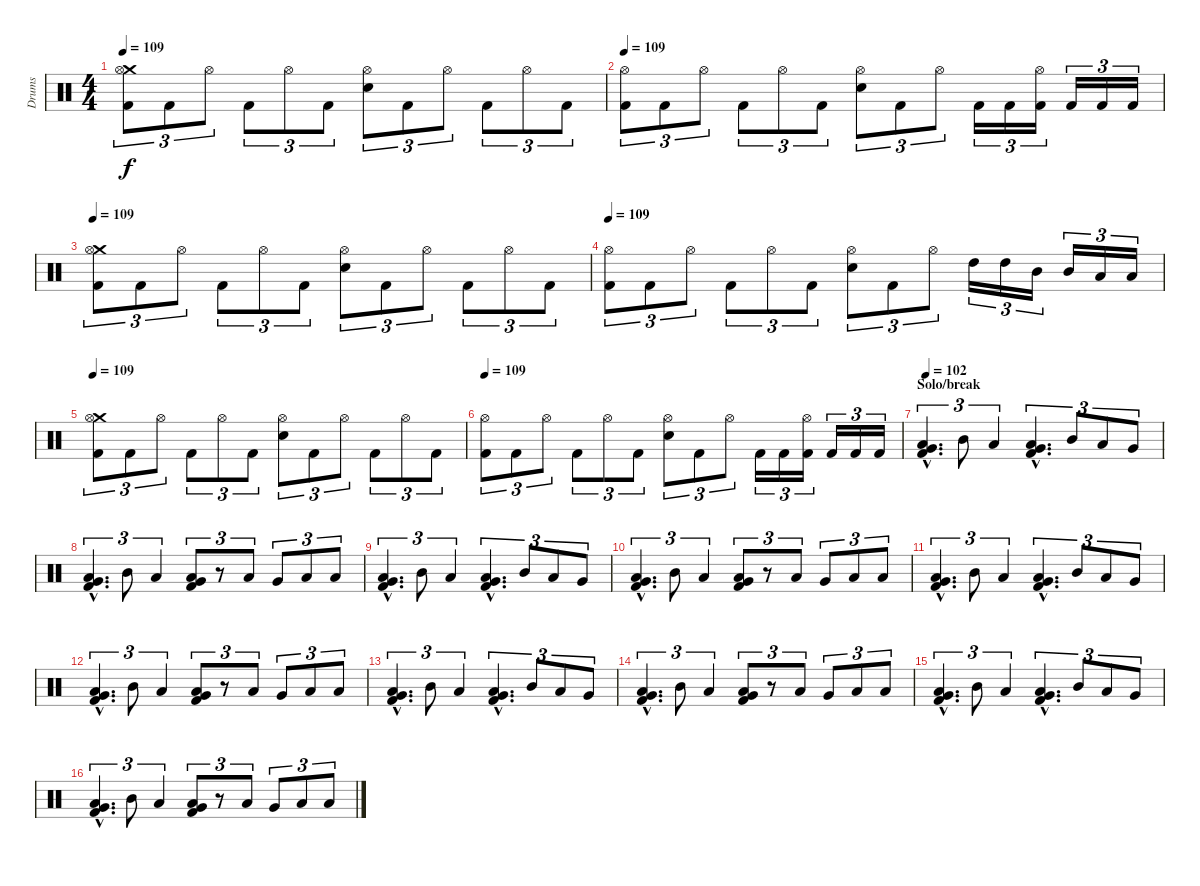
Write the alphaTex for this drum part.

\track ("Drums" "Drums") {instrument percussion}
\staff {score}
\articulation defaults
\ts (4 4)
\tempo 109
\clef neutral
\ks c
("Crash medium (hit)" "Hi-Hat (open)" "Kick (hit) 2").8{tu (3 2) dy f} "Kick (hit) 2".8{tu (3 2)} "Hi-Hat (open)".8{tu (3 2)} "Kick (hit) 2".8{tu (3 2)} "Hi-Hat (open)".8{tu (3 2)} "Kick (hit) 2".8{tu (3 2)} ("Hi-Hat (open)" "Snare (hit) 2").8{tu (3 2)} "Kick (hit) 2".8{tu (3 2)} "Hi-Hat (open)".8{tu (3 2)} "Kick (hit) 2".8{tu (3 2)} "Hi-Hat (open)".8{tu (3 2)} "Kick (hit) 2".8{tu (3 2)} |
\tempo 109
("Hi-Hat (open)" "Kick (hit) 2").8{tu (3 2)} "Kick (hit) 2".8{tu (3 2)} "Hi-Hat (open)".8{tu (3 2)} "Kick (hit) 2".8{tu (3 2)} "Hi-Hat (open)".8{tu (3 2)} "Kick (hit) 2".8{tu (3 2)} ("Hi-Hat (open)" "Snare (hit) 2").8{tu (3 2)} "Kick (hit) 2".8{tu (3 2)} "Hi-Hat (open)".8{tu (3 2)} "Kick (hit) 2".16{tu (3 2)} "Kick (hit) 2".16{tu (3 2)} ("Hi-Hat (open)" "Kick (hit) 2").16{tu (3 2)} "Kick (hit) 2".16{tu (3 2)} "Kick (hit) 2".16{tu (3 2)} "Kick (hit) 2".16{tu (3 2)} |
\tempo 109
("Crash medium (hit)" "Hi-Hat (open)" "Kick (hit) 2").8{tu (3 2)} "Kick (hit) 2".8{tu (3 2)} "Hi-Hat (open)".8{tu (3 2)} "Kick (hit) 2".8{tu (3 2)} "Hi-Hat (open)".8{tu (3 2)} "Kick (hit) 2".8{tu (3 2)} ("Hi-Hat (open)" "Snare (hit) 2").8{tu (3 2)} "Kick (hit) 2".8{tu (3 2)} "Hi-Hat (open)".8{tu (3 2)} "Kick (hit) 2".8{tu (3 2)} "Hi-Hat (open)".8{tu (3 2)} "Kick (hit) 2".8{tu (3 2)} |
\tempo 109
("Hi-Hat (open)" "Kick (hit) 2").8{tu (3 2)} "Kick (hit) 2".8{tu (3 2)} "Hi-Hat (open)".8{tu (3 2)} "Kick (hit) 2".8{tu (3 2)} "Hi-Hat (open)".8{tu (3 2)} "Kick (hit) 2".8{tu (3 2)} ("Hi-Hat (open)" "Snare (hit) 2").8{tu (3 2)} "Kick (hit) 2".8{tu (3 2)} "Hi-Hat (open)".8{tu (3 2)} "High Tom (hit)".16{tu (3 2)} "High Tom (hit)".16{tu (3 2)} "Mid Tom (hit)".16{tu (3 2)} "Mid Tom (hit)".16{tu (3 2)} "Low Tom (hit)".16{tu (3 2)} "Low Tom (hit)".16{tu (3 2)} |
\tempo 109
("Crash medium (hit)" "Hi-Hat (open)" "Kick (hit) 2").8{tu (3 2)} "Kick (hit) 2".8{tu (3 2)} "Hi-Hat (open)".8{tu (3 2)} "Kick (hit) 2".8{tu (3 2)} "Hi-Hat (open)".8{tu (3 2)} "Kick (hit) 2".8{tu (3 2)} ("Hi-Hat (open)" "Snare (hit) 2").8{tu (3 2)} "Kick (hit) 2".8{tu (3 2)} "Hi-Hat (open)".8{tu (3 2)} "Kick (hit) 2".8{tu (3 2)} "Hi-Hat (open)".8{tu (3 2)} "Kick (hit) 2".8{tu (3 2)} |
\tempo 109
("Hi-Hat (open)" "Kick (hit) 2").8{tu (3 2)} "Kick (hit) 2".8{tu (3 2)} "Hi-Hat (open)".8{tu (3 2)} "Kick (hit) 2".8{tu (3 2)} "Hi-Hat (open)".8{tu (3 2)} "Kick (hit) 2".8{tu (3 2)} ("Hi-Hat (open)" "Snare (hit) 2").8{tu (3 2)} "Kick (hit) 2".8{tu (3 2)} "Hi-Hat (open)".8{tu (3 2)} "Kick (hit) 2".16{tu (3 2)} "Kick (hit) 2".16{tu (3 2)} ("Hi-Hat (open)" "Kick (hit) 2").16{tu (3 2)} "Kick (hit) 2".16{tu (3 2)} "Kick (hit) 2".16{tu (3 2)} "Kick (hit) 2".16{tu (3 2)} |
\section ("" "Solo/break")
\tempo 102
("Very Low Tom (hit)"{hac} "Low Floor Tom (hit)"{hac} "Kick (hit) 2"{hac}).4{d tu (3 2)} "Mid Tom (hit)".8{tu (3 2)} "Low Tom (hit)".4{tu (3 2)} ("Very Low Tom (hit)"{hac} "Low Floor Tom (hit)"{hac} "Kick (hit) 2"{hac}).4{d tu (3 2)} "Mid Tom (hit)".8{tu (3 2)} "Low Tom (hit)".8{tu (3 2)} "Very Low Tom (hit)".8{tu (3 2)} |
("Very Low Tom (hit)"{hac} "Low Floor Tom (hit)"{hac} "Kick (hit) 2"{hac}).4{d tu (3 2)} "Mid Tom (hit)".8{tu (3 2)} "Low Tom (hit)".4{tu (3 2)} ("Very Low Tom (hit)" "Low Floor Tom (hit)" "Kick (hit) 2").8{tu (3 2)} r.8{tu (3 2)} "Low Tom (hit)".8{tu (3 2)} "Very Low Tom (hit)".8{tu (3 2)} "Low Floor Tom (hit)".8{tu (3 2)} "Low Floor Tom (hit)".8{tu (3 2)} |
("Very Low Tom (hit)"{hac} "Low Floor Tom (hit)"{hac} "Kick (hit) 2"{hac}).4{d tu (3 2)} "Mid Tom (hit)".8{tu (3 2)} "Low Tom (hit)".4{tu (3 2)} ("Very Low Tom (hit)"{hac} "Low Floor Tom (hit)"{hac} "Kick (hit) 2"{hac}).4{d tu (3 2)} "Mid Tom (hit)".8{tu (3 2)} "Low Tom (hit)".8{tu (3 2)} "Very Low Tom (hit)".8{tu (3 2)} |
("Very Low Tom (hit)"{hac} "Low Floor Tom (hit)"{hac} "Kick (hit) 2"{hac}).4{d tu (3 2)} "Mid Tom (hit)".8{tu (3 2)} "Low Tom (hit)".4{tu (3 2)} ("Very Low Tom (hit)" "Low Floor Tom (hit)" "Kick (hit) 2").8{tu (3 2)} r.8{tu (3 2)} "Low Tom (hit)".8{tu (3 2)} "Very Low Tom (hit)".8{tu (3 2)} "Low Floor Tom (hit)".8{tu (3 2)} "Low Floor Tom (hit)".8{tu (3 2)} |
("Very Low Tom (hit)"{hac} "Low Floor Tom (hit)"{hac} "Kick (hit) 2"{hac}).4{d tu (3 2)} "Mid Tom (hit)".8{tu (3 2)} "Low Tom (hit)".4{tu (3 2)} ("Very Low Tom (hit)"{hac} "Low Floor Tom (hit)"{hac} "Kick (hit) 2"{hac}).4{d tu (3 2)} "Mid Tom (hit)".8{tu (3 2)} "Low Tom (hit)".8{tu (3 2)} "Very Low Tom (hit)".8{tu (3 2)} |
("Very Low Tom (hit)"{hac} "Low Floor Tom (hit)"{hac} "Kick (hit) 2"{hac}).4{d tu (3 2)} "Mid Tom (hit)".8{tu (3 2)} "Low Tom (hit)".4{tu (3 2)} ("Very Low Tom (hit)" "Low Floor Tom (hit)" "Kick (hit) 2").8{tu (3 2)} r.8{tu (3 2)} "Low Tom (hit)".8{tu (3 2)} "Very Low Tom (hit)".8{tu (3 2)} "Low Floor Tom (hit)".8{tu (3 2)} "Low Floor Tom (hit)".8{tu (3 2)} |
("Very Low Tom (hit)"{hac} "Low Floor Tom (hit)"{hac} "Kick (hit) 2"{hac}).4{d tu (3 2)} "Mid Tom (hit)".8{tu (3 2)} "Low Tom (hit)".4{tu (3 2)} ("Very Low Tom (hit)"{hac} "Low Floor Tom (hit)"{hac} "Kick (hit) 2"{hac}).4{d tu (3 2)} "Mid Tom (hit)".8{tu (3 2)} "Low Tom (hit)".8{tu (3 2)} "Very Low Tom (hit)".8{tu (3 2)} |
("Very Low Tom (hit)"{hac} "Low Floor Tom (hit)"{hac} "Kick (hit) 2"{hac}).4{d tu (3 2)} "Mid Tom (hit)".8{tu (3 2)} "Low Tom (hit)".4{tu (3 2)} ("Very Low Tom (hit)" "Low Floor Tom (hit)" "Kick (hit) 2").8{tu (3 2)} r.8{tu (3 2)} "Low Tom (hit)".8{tu (3 2)} "Very Low Tom (hit)".8{tu (3 2)} "Low Floor Tom (hit)".8{tu (3 2)} "Low Floor Tom (hit)".8{tu (3 2)} |
("Very Low Tom (hit)"{hac} "Low Floor Tom (hit)"{hac} "Kick (hit) 2"{hac}).4{d tu (3 2)} "Mid Tom (hit)".8{tu (3 2)} "Low Tom (hit)".4{tu (3 2)} ("Very Low Tom (hit)"{hac} "Low Floor Tom (hit)"{hac} "Kick (hit) 2"{hac}).4{d tu (3 2)} "Mid Tom (hit)".8{tu (3 2)} "Low Tom (hit)".8{tu (3 2)} "Very Low Tom (hit)".8{tu (3 2)} |
("Very Low Tom (hit)"{hac} "Low Floor Tom (hit)"{hac} "Kick (hit) 2"{hac}).4{d tu (3 2)} "Mid Tom (hit)".8{tu (3 2)} "Low Tom (hit)".4{tu (3 2)} ("Very Low Tom (hit)" "Low Floor Tom (hit)" "Kick (hit) 2").8{tu (3 2)} r.8{tu (3 2)} "Low Tom (hit)".8{tu (3 2)} "Very Low Tom (hit)".8{tu (3 2)} "Low Floor Tom (hit)".8{tu (3 2)} "Low Floor Tom (hit)".8{tu (3 2)}
